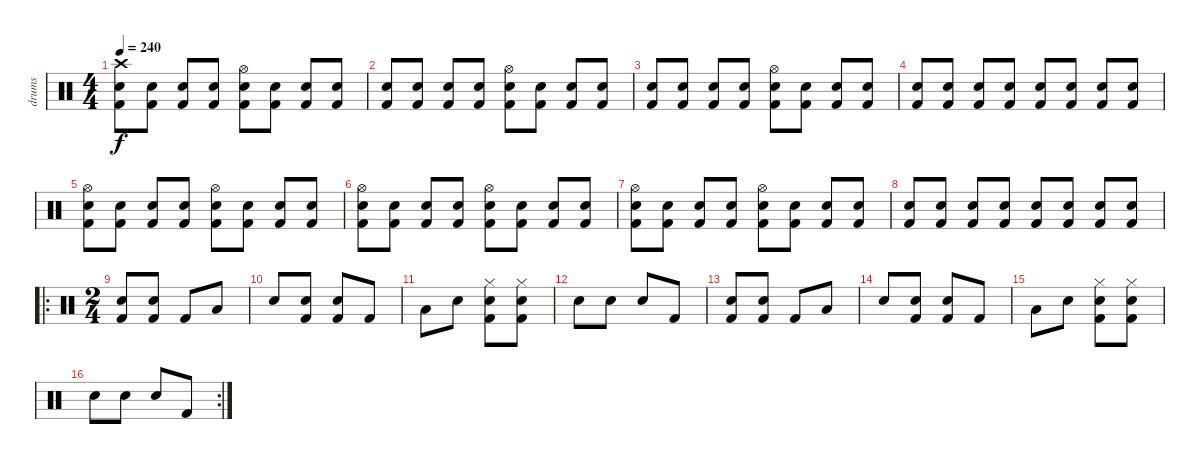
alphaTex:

\track ("drums" "drums") {instrument percussion}
\staff {score}
\articulation defaults
\ts (4 4)
\tempo 240
\clef neutral
\ks c
("Crash high (hit)" "Snare (hit) 2" "Kick (hit) 2").8{dy f} ("Snare (hit) 2" "Kick (hit) 2").8 ("Snare (hit) 2" "Kick (hit) 2").8 ("Snare (hit) 2" "Kick (hit) 2").8 ("Hi-Hat (open)" "Snare (hit) 2" "Kick (hit) 2").8 ("Snare (hit) 2" "Kick (hit) 2").8 ("Snare (hit) 2" "Kick (hit) 2").8 ("Snare (hit) 2" "Kick (hit) 2").8 |
("Snare (hit) 2" "Kick (hit) 2").8 ("Snare (hit) 2" "Kick (hit) 2").8 ("Snare (hit) 2" "Kick (hit) 2").8 ("Snare (hit) 2" "Kick (hit) 2").8 ("Hi-Hat (open)" "Snare (hit) 2" "Kick (hit) 2").8 ("Snare (hit) 2" "Kick (hit) 2").8 ("Snare (hit) 2" "Kick (hit) 2").8 ("Snare (hit) 2" "Kick (hit) 2").8 |
("Snare (hit) 2" "Kick (hit) 2").8 ("Snare (hit) 2" "Kick (hit) 2").8 ("Snare (hit) 2" "Kick (hit) 2").8 ("Snare (hit) 2" "Kick (hit) 2").8 ("Hi-Hat (open)" "Snare (hit) 2" "Kick (hit) 2").8 ("Snare (hit) 2" "Kick (hit) 2").8 ("Snare (hit) 2" "Kick (hit) 2").8 ("Snare (hit) 2" "Kick (hit) 2").8 |
("Snare (hit) 2" "Kick (hit) 2").8 ("Electric Snare (hit)" "Kick (hit) 2").8 ("Electric Snare (hit)" "Kick (hit) 2").8 ("Electric Snare (hit)" "Kick (hit) 2").8 ("Electric Snare (hit)" "Kick (hit) 2").8 ("Electric Snare (hit)" "Kick (hit) 2").8 ("Electric Snare (hit)" "Kick (hit) 2").8 ("Electric Snare (hit)" "Kick (hit) 2").8 |
("Hi-Hat (open)" "Snare (hit) 2" "Kick (hit) 2").8 ("Snare (hit) 2" "Kick (hit) 2").8 ("Snare (hit) 2" "Kick (hit) 2").8 ("Snare (hit) 2" "Kick (hit) 2").8 ("Hi-Hat (open)" "Snare (hit) 2" "Kick (hit) 2").8 ("Snare (hit) 2" "Kick (hit) 2").8 ("Snare (hit) 2" "Kick (hit) 2").8 ("Snare (hit) 2" "Kick (hit) 2").8 |
("Hi-Hat (open)" "Snare (hit) 2" "Kick (hit) 2").8 ("Snare (hit) 2" "Kick (hit) 2").8 ("Snare (hit) 2" "Kick (hit) 2").8 ("Snare (hit) 2" "Kick (hit) 2").8 ("Hi-Hat (open)" "Snare (hit) 2" "Kick (hit) 2").8 ("Snare (hit) 2" "Kick (hit) 2").8 ("Snare (hit) 2" "Kick (hit) 2").8 ("Snare (hit) 2" "Kick (hit) 2").8 |
("Hi-Hat (open)" "Snare (hit) 2" "Kick (hit) 2").8 ("Snare (hit) 2" "Kick (hit) 2").8 ("Snare (hit) 2" "Kick (hit) 2").8 ("Snare (hit) 2" "Kick (hit) 2").8 ("Hi-Hat (open)" "Snare (hit) 2" "Kick (hit) 2").8 ("Snare (hit) 2" "Kick (hit) 2").8 ("Snare (hit) 2" "Kick (hit) 2").8 ("Snare (hit) 2" "Kick (hit) 2").8 |
("Snare (hit) 2" "Kick (hit) 2").8 ("Electric Snare (hit)" "Kick (hit) 2").8 ("Electric Snare (hit)" "Kick (hit) 2").8 ("Electric Snare (hit)" "Kick (hit) 2").8 ("Electric Snare (hit)" "Kick (hit) 2").8 ("Electric Snare (hit)" "Kick (hit) 2").8 ("Electric Snare (hit)" "Kick (hit) 2").8 ("Electric Snare (hit)" "Kick (hit) 2").8 |
\ro
\ts (2 4)
("Electric Snare (hit)" "Kick (hit) 2").8 ("Electric Snare (hit)" "Kick (hit) 2").8 "Kick (hit) 2".8 "Low Tom (hit)".8 |
"Snare (hit) 2".8 ("Electric Snare (hit)" "Kick (hit) 2").8 ("Electric Snare (hit)" "Kick (hit) 2").8 "Kick (hit) 2".8 |
"Low Tom (hit)".8 "Snare (hit) 2".8 ("Hi-Hat (closed)" "Electric Snare (hit)" "Kick (hit) 2").8 ("Hi-Hat (closed)" "Electric Snare (hit)" "Kick (hit) 2").8 |
"Snare (hit) 2".8 "Electric Snare (hit)".8 "Electric Snare (hit)".8 "Kick (hit) 2".8 |
("Electric Snare (hit)" "Kick (hit) 2").8 ("Electric Snare (hit)" "Kick (hit) 2").8 "Kick (hit) 2".8 "Low Tom (hit)".8 |
"Snare (hit) 2".8 ("Electric Snare (hit)" "Kick (hit) 2").8 ("Electric Snare (hit)" "Kick (hit) 2").8 "Kick (hit) 2".8 |
"Low Tom (hit)".8 "Snare (hit) 2".8 ("Hi-Hat (closed)" "Electric Snare (hit)" "Kick (hit) 2").8 ("Hi-Hat (closed)" "Electric Snare (hit)" "Kick (hit) 2").8 |
\rc 2 "Snare (hit) 2".8 "Electric Snare (hit)".8 "Electric Snare (hit)".8 "Kick (hit) 2".8
